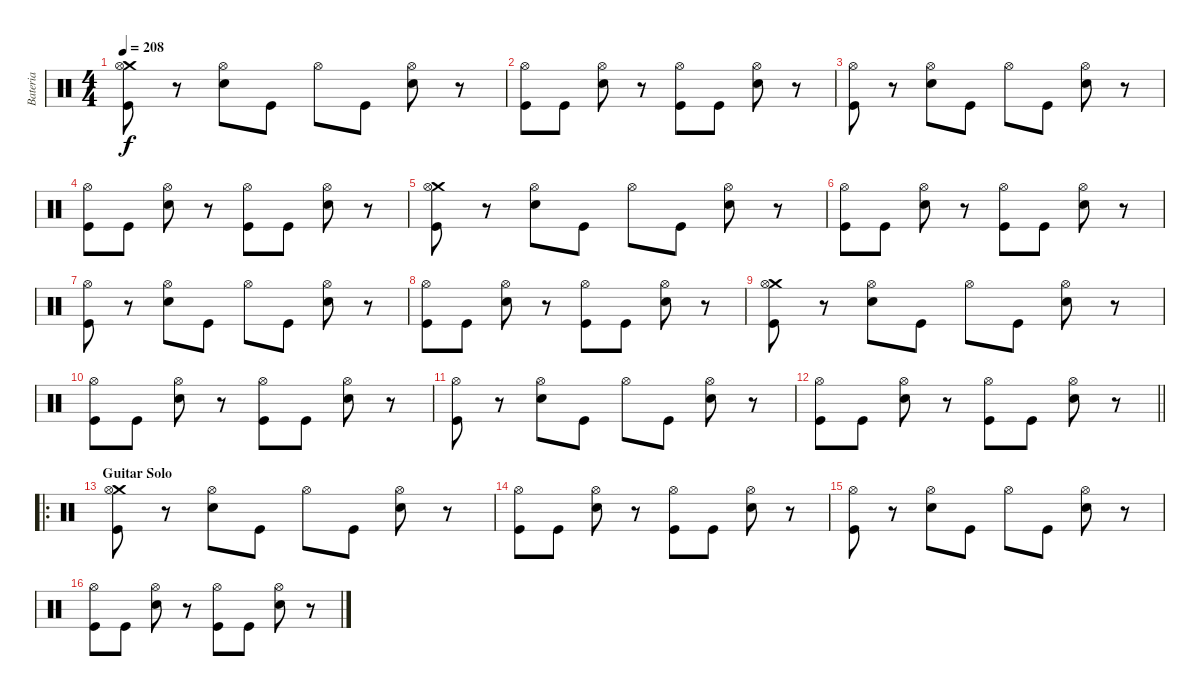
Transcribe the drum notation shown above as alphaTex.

\track ("Bateria" "Bateria") {instrument percussion}
\staff {score}
\articulation defaults
\ts (4 4)
\tempo 208
\clef neutral
\ks c
("Crash medium (hit)" "Hi-Hat (open)" "Kick (hit)").8{dy f} r.8 ("Hi-Hat (open)" "Electric Snare (hit)").8 "Kick (hit)".8 "Hi-Hat (open)".8 "Kick (hit)".8 ("Hi-Hat (open)" "Electric Snare (hit)").8 r.8 |
("Hi-Hat (open)" "Kick (hit)").8 "Kick (hit)".8 ("Hi-Hat (open)" "Electric Snare (hit)").8 r.8 ("Hi-Hat (open)" "Kick (hit)").8 "Kick (hit)".8 ("Hi-Hat (open)" "Electric Snare (hit)").8 r.8 |
("Hi-Hat (open)" "Kick (hit)").8 r.8 ("Hi-Hat (open)" "Electric Snare (hit)").8 "Kick (hit)".8 "Hi-Hat (open)".8 "Kick (hit)".8 ("Hi-Hat (open)" "Electric Snare (hit)").8 r.8 |
("Hi-Hat (open)" "Kick (hit)").8 "Kick (hit)".8 ("Hi-Hat (open)" "Electric Snare (hit)").8 r.8 ("Hi-Hat (open)" "Kick (hit)").8 "Kick (hit)".8 ("Hi-Hat (open)" "Electric Snare (hit)").8 r.8 |
("Crash medium (hit)" "Hi-Hat (open)" "Kick (hit)").8 r.8 ("Hi-Hat (open)" "Electric Snare (hit)").8 "Kick (hit)".8 "Hi-Hat (open)".8 "Kick (hit)".8 ("Hi-Hat (open)" "Electric Snare (hit)").8 r.8 |
("Hi-Hat (open)" "Kick (hit)").8 "Kick (hit)".8 ("Hi-Hat (open)" "Electric Snare (hit)").8 r.8 ("Hi-Hat (open)" "Kick (hit)").8 "Kick (hit)".8 ("Hi-Hat (open)" "Electric Snare (hit)").8 r.8 |
("Hi-Hat (open)" "Kick (hit)").8 r.8 ("Hi-Hat (open)" "Electric Snare (hit)").8 "Kick (hit)".8 "Hi-Hat (open)".8 "Kick (hit)".8 ("Hi-Hat (open)" "Electric Snare (hit)").8 r.8 |
("Hi-Hat (open)" "Kick (hit)").8 "Kick (hit)".8 ("Hi-Hat (open)" "Electric Snare (hit)").8 r.8 ("Hi-Hat (open)" "Kick (hit)").8 "Kick (hit)".8 ("Hi-Hat (open)" "Electric Snare (hit)").8 r.8 |
("Crash medium (hit)" "Hi-Hat (open)" "Kick (hit)").8 r.8 ("Hi-Hat (open)" "Electric Snare (hit)").8 "Kick (hit)".8 "Hi-Hat (open)".8 "Kick (hit)".8 ("Hi-Hat (open)" "Electric Snare (hit)").8 r.8 |
("Hi-Hat (open)" "Kick (hit)").8 "Kick (hit)".8 ("Hi-Hat (open)" "Electric Snare (hit)").8 r.8 ("Hi-Hat (open)" "Kick (hit)").8 "Kick (hit)".8 ("Hi-Hat (open)" "Electric Snare (hit)").8 r.8 |
("Hi-Hat (open)" "Kick (hit)").8 r.8 ("Hi-Hat (open)" "Electric Snare (hit)").8 "Kick (hit)".8 "Hi-Hat (open)".8 "Kick (hit)".8 ("Hi-Hat (open)" "Electric Snare (hit)").8 r.8 |
\barLineRight lightlight
("Hi-Hat (open)" "Kick (hit)").8 "Kick (hit)".8 ("Hi-Hat (open)" "Electric Snare (hit)").8 r.8 ("Hi-Hat (open)" "Kick (hit)").8 "Kick (hit)".8 ("Hi-Hat (open)" "Electric Snare (hit)").8 r.8 |
\ro
\section ("" "Guitar Solo")
("Crash medium (hit)" "Hi-Hat (open)" "Kick (hit)").8 r.8 ("Hi-Hat (open)" "Electric Snare (hit)").8 "Kick (hit)".8 "Hi-Hat (open)".8 "Kick (hit)".8 ("Hi-Hat (open)" "Electric Snare (hit)").8 r.8 |
("Hi-Hat (open)" "Kick (hit)").8 "Kick (hit)".8 ("Hi-Hat (open)" "Electric Snare (hit)").8 r.8 ("Hi-Hat (open)" "Kick (hit)").8 "Kick (hit)".8 ("Hi-Hat (open)" "Electric Snare (hit)").8 r.8 |
("Hi-Hat (open)" "Kick (hit)").8 r.8 ("Hi-Hat (open)" "Electric Snare (hit)").8 "Kick (hit)".8 "Hi-Hat (open)".8 "Kick (hit)".8 ("Hi-Hat (open)" "Electric Snare (hit)").8 r.8 |
("Hi-Hat (open)" "Kick (hit)").8 "Kick (hit)".8 ("Hi-Hat (open)" "Electric Snare (hit)").8 r.8 ("Hi-Hat (open)" "Kick (hit)").8 "Kick (hit)".8 ("Hi-Hat (open)" "Electric Snare (hit)").8 r.8
